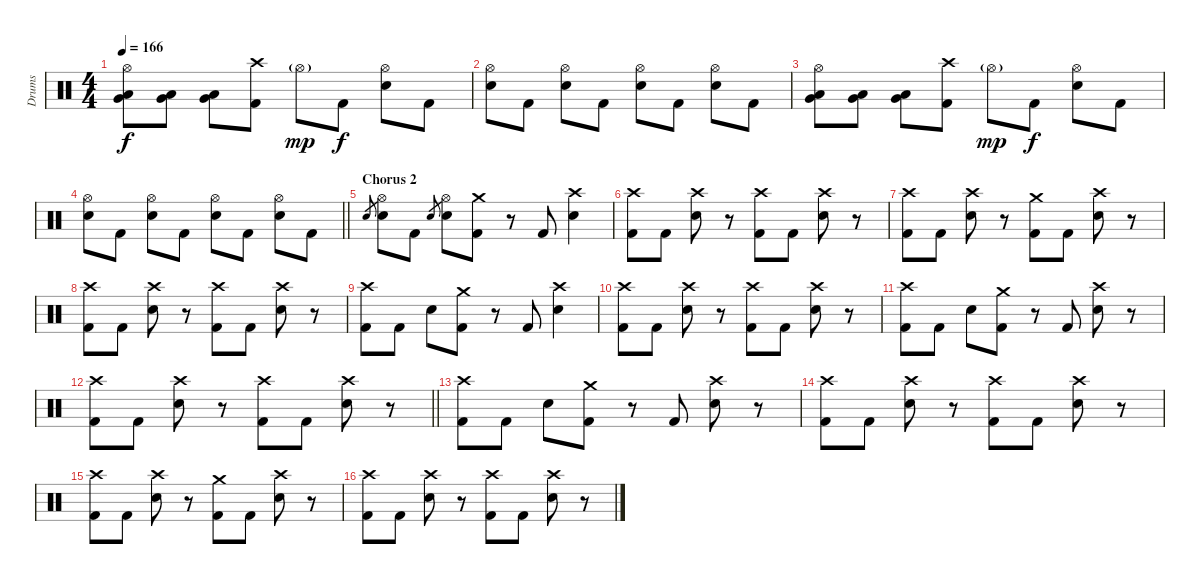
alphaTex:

\track ("Drums" "Drums") {instrument percussion}
\staff {score}
\articulation defaults
\ts (4 4)
\tempo 166
\clef neutral
\ks c
("Hi-Hat (open)" "Low Tom (hit)" "Very Low Tom (hit)").8{dy f} ("Low Tom (hit)" "Very Low Tom (hit)").8 ("Low Tom (hit)" "Very Low Tom (hit)").8 ("Crash high (hit)" "Kick (hit) 2").8 "Hi-Hat (open)"{g}.8{dy mp} "Kick (hit) 2".8{dy f} ("Hi-Hat (open)" "Electric Snare (hit)").8 "Kick (hit) 2".8 |
("Hi-Hat (open)" "Electric Snare (hit)").8 "Kick (hit) 2".8 ("Hi-Hat (open)" "Electric Snare (hit)").8 "Kick (hit) 2".8 ("Hi-Hat (open)" "Electric Snare (hit)").8 "Kick (hit) 2".8 ("Hi-Hat (open)" "Electric Snare (hit)").8 "Kick (hit) 2".8 |
("Hi-Hat (open)" "Low Tom (hit)" "Very Low Tom (hit)").8 ("Low Tom (hit)" "Very Low Tom (hit)").8 ("Low Tom (hit)" "Very Low Tom (hit)").8 ("Crash high (hit)" "Kick (hit) 2").8 "Hi-Hat (open)"{g}.8{dy mp} "Kick (hit) 2".8{dy f} ("Hi-Hat (open)" "Electric Snare (hit)").8 "Kick (hit) 2".8 |
\barLineRight lightlight
("Hi-Hat (open)" "Electric Snare (hit)").8 "Kick (hit) 2".8 ("Hi-Hat (open)" "Electric Snare (hit)").8 "Kick (hit) 2".8 ("Hi-Hat (open)" "Electric Snare (hit)").8 "Kick (hit) 2".8 ("Hi-Hat (open)" "Electric Snare (hit)").8 "Kick (hit) 2".8 |
\section ("" "Chorus 2")
"Electric Snare (hit)".8{gr} ("Hi-Hat (open)" "Electric Snare (hit)").8 "Kick (hit) 2".8 "Electric Snare (hit)".8{gr} ("Hi-Hat (open)" "Electric Snare (hit)").8 ("Crash medium (hit)" "Kick (hit) 2").8 r.8 "Kick (hit) 2".8 ("Crash high (hit)" "Electric Snare (hit)").4 |
("Crash high (hit)" "Kick (hit) 2").8 "Kick (hit) 2".8 ("Crash high (hit)" "Electric Snare (hit)").8 r.8 ("Crash high (hit)" "Kick (hit) 2").8 "Kick (hit) 2".8 ("Crash high (hit)" "Electric Snare (hit)").8 r.8 |
("Crash high (hit)" "Kick (hit) 2").8 "Kick (hit) 2".8 ("Crash high (hit)" "Electric Snare (hit)").8 r.8 ("Crash medium (hit)" "Kick (hit) 2").8 "Kick (hit) 2".8 ("Crash high (hit)" "Electric Snare (hit)").8 r.8 |
("Crash high (hit)" "Kick (hit) 2").8 "Kick (hit) 2".8 ("Crash high (hit)" "Electric Snare (hit)").8 r.8 ("Crash high (hit)" "Kick (hit) 2").8 "Kick (hit) 2".8 ("Crash high (hit)" "Electric Snare (hit)").8 r.8 |
("Crash high (hit)" "Kick (hit) 2").8 "Kick (hit) 2".8 "Electric Snare (hit)".8 ("Crash medium (hit)" "Kick (hit) 2").8 r.8 "Kick (hit) 2".8 ("Crash high (hit)" "Electric Snare (hit)").4 |
("Crash high (hit)" "Kick (hit) 2").8 "Kick (hit) 2".8 ("Crash high (hit)" "Electric Snare (hit)").8 r.8 ("Crash high (hit)" "Kick (hit) 2").8 "Kick (hit) 2".8 ("Crash high (hit)" "Electric Snare (hit)").8 r.8 |
("Crash high (hit)" "Kick (hit) 2").8 "Kick (hit) 2".8 "Electric Snare (hit)".8 ("Crash medium (hit)" "Kick (hit) 2").8 r.8 "Kick (hit) 2".8 ("Crash high (hit)" "Electric Snare (hit)").8 r.8 |
\barLineRight lightlight
("Crash high (hit)" "Kick (hit) 2").8 "Kick (hit) 2".8 ("Crash high (hit)" "Electric Snare (hit)").8 r.8 ("Crash high (hit)" "Kick (hit) 2").8 "Kick (hit) 2".8 ("Crash high (hit)" "Electric Snare (hit)").8 r.8 |
("Crash high (hit)" "Kick (hit) 2").8 "Kick (hit) 2".8 "Electric Snare (hit)".8 ("Crash medium (hit)" "Kick (hit) 2").8 r.8 "Kick (hit) 2".8 ("Crash high (hit)" "Electric Snare (hit)").8 r.8 |
("Crash high (hit)" "Kick (hit) 2").8 "Kick (hit) 2".8 ("Crash high (hit)" "Electric Snare (hit)").8 r.8 ("Crash high (hit)" "Kick (hit) 2").8 "Kick (hit) 2".8 ("Crash high (hit)" "Electric Snare (hit)").8 r.8 |
("Crash high (hit)" "Kick (hit) 2").8 "Kick (hit) 2".8 ("Crash high (hit)" "Electric Snare (hit)").8 r.8 ("Crash medium (hit)" "Kick (hit) 2").8 "Kick (hit) 2".8 ("Crash high (hit)" "Electric Snare (hit)").8 r.8 |
("Crash high (hit)" "Kick (hit) 2").8 "Kick (hit) 2".8 ("Crash high (hit)" "Electric Snare (hit)").8 r.8 ("Crash high (hit)" "Kick (hit) 2").8 "Kick (hit) 2".8 ("Crash high (hit)" "Electric Snare (hit)").8 r.8
